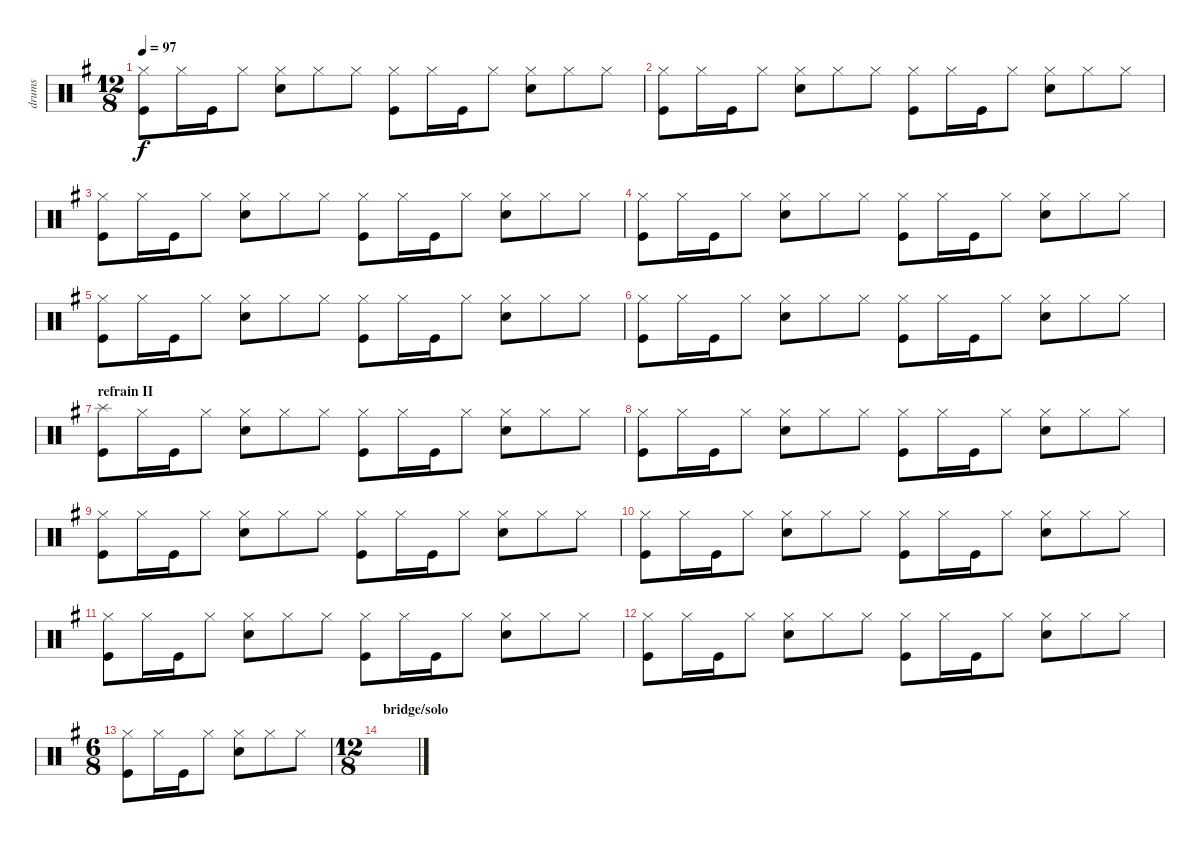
\track ("drums" "drums") {instrument percussion}
\staff {score}
\articulation defaults
\ts (12 8)
\tempo 97
\clef neutral
\ks g
("Hi-Hat (closed)" "Kick (hit)").8{dy f} "Hi-Hat (closed)".16 "Kick (hit)".16 "Hi-Hat (closed)".8 ("Hi-Hat (closed)" "Electric Snare (hit)").8 "Hi-Hat (closed)".8 "Hi-Hat (closed)".8 ("Hi-Hat (closed)" "Kick (hit)").8 "Hi-Hat (closed)".16 "Kick (hit)".16 "Hi-Hat (closed)".8 ("Hi-Hat (closed)" "Electric Snare (hit)").8 "Hi-Hat (closed)".8 "Hi-Hat (closed)".8 |
("Hi-Hat (closed)" "Kick (hit)").8 "Hi-Hat (closed)".16 "Kick (hit)".16 "Hi-Hat (closed)".8 ("Hi-Hat (closed)" "Electric Snare (hit)").8 "Hi-Hat (closed)".8 "Hi-Hat (closed)".8 ("Hi-Hat (closed)" "Kick (hit)").8 "Hi-Hat (closed)".16 "Kick (hit)".16 "Hi-Hat (closed)".8 ("Hi-Hat (closed)" "Electric Snare (hit)").8 "Hi-Hat (closed)".8 "Hi-Hat (closed)".8 |
("Hi-Hat (closed)" "Kick (hit)").8 "Hi-Hat (closed)".16 "Kick (hit)".16 "Hi-Hat (closed)".8 ("Hi-Hat (closed)" "Electric Snare (hit)").8 "Hi-Hat (closed)".8 "Hi-Hat (closed)".8 ("Hi-Hat (closed)" "Kick (hit)").8 "Hi-Hat (closed)".16 "Kick (hit)".16 "Hi-Hat (closed)".8 ("Hi-Hat (closed)" "Electric Snare (hit)").8 "Hi-Hat (closed)".8 "Hi-Hat (closed)".8 |
("Hi-Hat (closed)" "Kick (hit)").8 "Hi-Hat (closed)".16 "Kick (hit)".16 "Hi-Hat (closed)".8 ("Hi-Hat (closed)" "Electric Snare (hit)").8 "Hi-Hat (closed)".8 "Hi-Hat (closed)".8 ("Hi-Hat (closed)" "Kick (hit)").8 "Hi-Hat (closed)".16 "Kick (hit)".16 "Hi-Hat (closed)".8 ("Hi-Hat (closed)" "Electric Snare (hit)").8 "Hi-Hat (closed)".8 "Hi-Hat (closed)".8 |
("Hi-Hat (closed)" "Kick (hit)").8 "Hi-Hat (closed)".16 "Kick (hit)".16 "Hi-Hat (closed)".8 ("Hi-Hat (closed)" "Electric Snare (hit)").8 "Hi-Hat (closed)".8 "Hi-Hat (closed)".8 ("Hi-Hat (closed)" "Kick (hit)").8 "Hi-Hat (closed)".16 "Kick (hit)".16 "Hi-Hat (closed)".8 ("Hi-Hat (closed)" "Electric Snare (hit)").8 "Hi-Hat (closed)".8 "Hi-Hat (closed)".8 |
("Hi-Hat (closed)" "Kick (hit)").8 "Hi-Hat (closed)".16 "Kick (hit)".16 "Hi-Hat (closed)".8 ("Hi-Hat (closed)" "Electric Snare (hit)").8 "Hi-Hat (closed)".8 "Hi-Hat (closed)".8 ("Hi-Hat (closed)" "Kick (hit)").8 "Hi-Hat (closed)".16 "Kick (hit)".16 "Hi-Hat (closed)".8 ("Hi-Hat (closed)" "Electric Snare (hit)").8 "Hi-Hat (closed)".8 "Hi-Hat (closed)".8 |
\section ("" "refrain II")
("Splash (hit)" "Kick (hit)").8 "Hi-Hat (closed)".16 "Kick (hit)".16 "Hi-Hat (closed)".8 ("Hi-Hat (closed)" "Electric Snare (hit)").8 "Hi-Hat (closed)".8 "Hi-Hat (closed)".8 ("Hi-Hat (closed)" "Kick (hit)").8 "Hi-Hat (closed)".16 "Kick (hit)".16 "Hi-Hat (closed)".8 ("Hi-Hat (closed)" "Electric Snare (hit)").8 "Hi-Hat (closed)".8 "Hi-Hat (closed)".8 |
("Hi-Hat (closed)" "Kick (hit)").8 "Hi-Hat (closed)".16 "Kick (hit)".16 "Hi-Hat (closed)".8 ("Hi-Hat (closed)" "Electric Snare (hit)").8 "Hi-Hat (closed)".8 "Hi-Hat (closed)".8 ("Hi-Hat (closed)" "Kick (hit)").8 "Hi-Hat (closed)".16 "Kick (hit)".16 "Hi-Hat (closed)".8 ("Hi-Hat (closed)" "Electric Snare (hit)").8 "Hi-Hat (closed)".8 "Hi-Hat (closed)".8 |
("Hi-Hat (closed)" "Kick (hit)").8 "Hi-Hat (closed)".16 "Kick (hit)".16 "Hi-Hat (closed)".8 ("Hi-Hat (closed)" "Electric Snare (hit)").8 "Hi-Hat (closed)".8 "Hi-Hat (closed)".8 ("Hi-Hat (closed)" "Kick (hit)").8 "Hi-Hat (closed)".16 "Kick (hit)".16 "Hi-Hat (closed)".8 ("Hi-Hat (closed)" "Electric Snare (hit)").8 "Hi-Hat (closed)".8 "Hi-Hat (closed)".8 |
("Hi-Hat (closed)" "Kick (hit)").8 "Hi-Hat (closed)".16 "Kick (hit)".16 "Hi-Hat (closed)".8 ("Hi-Hat (closed)" "Electric Snare (hit)").8 "Hi-Hat (closed)".8 "Hi-Hat (closed)".8 ("Hi-Hat (closed)" "Kick (hit)").8 "Hi-Hat (closed)".16 "Kick (hit)".16 "Hi-Hat (closed)".8 ("Hi-Hat (closed)" "Electric Snare (hit)").8 "Hi-Hat (closed)".8 "Hi-Hat (closed)".8 |
("Hi-Hat (closed)" "Kick (hit)").8 "Hi-Hat (closed)".16 "Kick (hit)".16 "Hi-Hat (closed)".8 ("Hi-Hat (closed)" "Electric Snare (hit)").8 "Hi-Hat (closed)".8 "Hi-Hat (closed)".8 ("Hi-Hat (closed)" "Kick (hit)").8 "Hi-Hat (closed)".16 "Kick (hit)".16 "Hi-Hat (closed)".8 ("Hi-Hat (closed)" "Electric Snare (hit)").8 "Hi-Hat (closed)".8 "Hi-Hat (closed)".8 |
("Hi-Hat (closed)" "Kick (hit)").8 "Hi-Hat (closed)".16 "Kick (hit)".16 "Hi-Hat (closed)".8 ("Hi-Hat (closed)" "Electric Snare (hit)").8 "Hi-Hat (closed)".8 "Hi-Hat (closed)".8 ("Hi-Hat (closed)" "Kick (hit)").8 "Hi-Hat (closed)".16 "Kick (hit)".16 "Hi-Hat (closed)".8 ("Hi-Hat (closed)" "Electric Snare (hit)").8 "Hi-Hat (closed)".8 "Hi-Hat (closed)".8 |
\ts (6 8)
("Hi-Hat (closed)" "Kick (hit)").8 "Hi-Hat (closed)".16 "Kick (hit)".16 "Hi-Hat (closed)".8 ("Hi-Hat (closed)" "Electric Snare (hit)").8 "Hi-Hat (closed)".8 "Hi-Hat (closed)".8 |
\ts (12 8)
\section ("" "bridge/solo")
